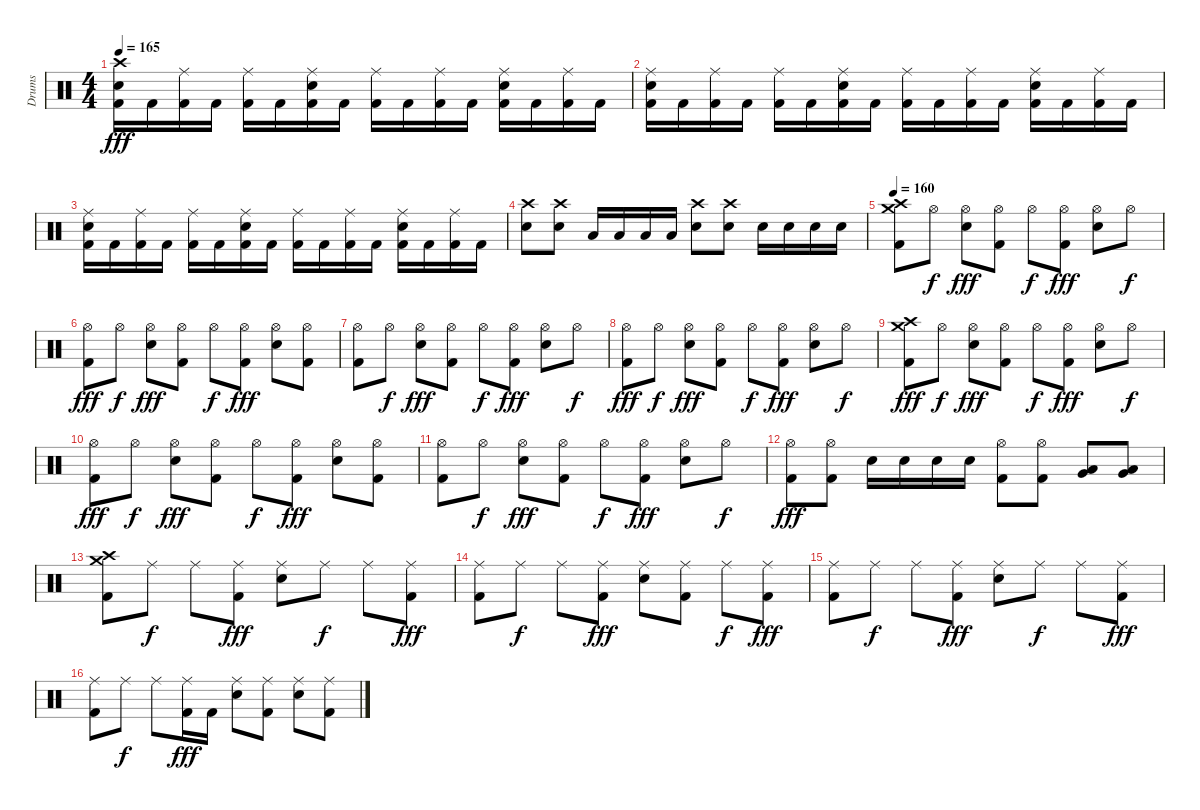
\track ("Drums" "Drums") {instrument percussion}
\staff {score}
\articulation defaults
\ts (4 4)
\tempo 165
\clef neutral
\ks c
("Kick (hit) 2" "Electric Snare (hit)" "Crash high (hit)").16{dy fff} "Kick (hit) 2".16 ("Kick (hit) 2" "Ride (middle)").16 "Kick (hit) 2".16 ("Kick (hit) 2" "Ride (middle)").16 "Kick (hit) 2".16 ("Kick (hit) 2" "Electric Snare (hit)" "Ride (middle)").16 "Kick (hit) 2".16 ("Kick (hit) 2" "Ride (middle)").16 "Kick (hit) 2".16 ("Kick (hit) 2" "Ride (middle)").16 "Kick (hit) 2".16 ("Kick (hit) 2" "Electric Snare (hit)" "Ride (middle)").16 "Kick (hit) 2".16 ("Kick (hit) 2" "Ride (middle)").16 "Kick (hit) 2".16 |
("Kick (hit) 2" "Electric Snare (hit)" "Ride (middle)").16 "Kick (hit) 2".16 ("Kick (hit) 2" "Ride (middle)").16 "Kick (hit) 2".16 ("Kick (hit) 2" "Ride (middle)").16 "Kick (hit) 2".16 ("Kick (hit) 2" "Electric Snare (hit)" "Ride (middle)").16 "Kick (hit) 2".16 ("Kick (hit) 2" "Ride (middle)").16 "Kick (hit) 2".16 ("Kick (hit) 2" "Ride (middle)").16 "Kick (hit) 2".16 ("Kick (hit) 2" "Electric Snare (hit)" "Ride (middle)").16 "Kick (hit) 2".16 ("Kick (hit) 2" "Ride (middle)").16 "Kick (hit) 2".16 |
("Kick (hit) 2" "Electric Snare (hit)" "Ride (middle)").16 "Kick (hit) 2".16 ("Kick (hit) 2" "Ride (middle)").16 "Kick (hit) 2".16 ("Kick (hit) 2" "Ride (middle)").16 "Kick (hit) 2".16 ("Kick (hit) 2" "Electric Snare (hit)" "Ride (middle)").16 "Kick (hit) 2".16 ("Kick (hit) 2" "Ride (middle)").16 "Kick (hit) 2".16 ("Kick (hit) 2" "Ride (middle)").16 "Kick (hit) 2".16 ("Kick (hit) 2" "Electric Snare (hit)" "Ride (middle)").16 "Kick (hit) 2".16 ("Kick (hit) 2" "Ride (middle)").16 "Kick (hit) 2".16 |
("Electric Snare (hit)" "Crash high (hit)").8 ("Electric Snare (hit)" "Crash high (hit)").8 "Low Tom (hit)".16 "Low Tom (hit)".16 "Low Tom (hit)".16 "Low Tom (hit)".16 ("Electric Snare (hit)" "Crash high (hit)").8 ("Electric Snare (hit)" "Crash high (hit)").8 "Electric Snare (hit)".16 "Electric Snare (hit)".16 "Electric Snare (hit)".16 "Electric Snare (hit)".16 |
\tempo 160
("Kick (hit) 2" "Crash medium (hit)" "Crash high (hit)").8 "Hi-Hat (open)".8{dy f} ("Electric Snare (hit)" "Hi-Hat (open)").8{dy fff} ("Kick (hit) 2" "Hi-Hat (open)").8 "Hi-Hat (open)".8{dy f} ("Kick (hit) 2" "Hi-Hat (open)").8{dy fff} ("Electric Snare (hit)" "Hi-Hat (open)").8 "Hi-Hat (open)".8{dy f} |
("Kick (hit) 2" "Hi-Hat (open)").8{dy fff} "Hi-Hat (open)".8{dy f} ("Electric Snare (hit)" "Hi-Hat (open)").8{dy fff} ("Kick (hit) 2" "Hi-Hat (open)").8 "Hi-Hat (open)".8{dy f} ("Kick (hit) 2" "Hi-Hat (open)").8{dy fff} ("Electric Snare (hit)" "Hi-Hat (open)").8 ("Kick (hit) 2" "Hi-Hat (open)").8 |
("Kick (hit) 2" "Hi-Hat (open)").8 "Hi-Hat (open)".8{dy f} ("Electric Snare (hit)" "Hi-Hat (open)").8{dy fff} ("Kick (hit) 2" "Hi-Hat (open)").8 "Hi-Hat (open)".8{dy f} ("Kick (hit) 2" "Hi-Hat (open)").8{dy fff} ("Electric Snare (hit)" "Hi-Hat (open)").8 "Hi-Hat (open)".8{dy f} |
("Kick (hit) 2" "Hi-Hat (open)").8{dy fff} "Hi-Hat (open)".8{dy f} ("Electric Snare (hit)" "Hi-Hat (open)").8{dy fff} ("Kick (hit) 2" "Hi-Hat (open)").8 "Hi-Hat (open)".8{dy f} ("Kick (hit) 2" "Hi-Hat (open)").8{dy fff} ("Electric Snare (hit)" "Hi-Hat (open)").8 "Hi-Hat (open)".8{dy f} |
("Kick (hit) 2" "Crash medium (hit)" "Crash high (hit)").8{dy fff} "Hi-Hat (open)".8{dy f} ("Electric Snare (hit)" "Hi-Hat (open)").8{dy fff} ("Kick (hit) 2" "Hi-Hat (open)").8 "Hi-Hat (open)".8{dy f} ("Kick (hit) 2" "Hi-Hat (open)").8{dy fff} ("Electric Snare (hit)" "Hi-Hat (open)").8 "Hi-Hat (open)".8{dy f} |
("Kick (hit) 2" "Hi-Hat (open)").8{dy fff} "Hi-Hat (open)".8{dy f} ("Electric Snare (hit)" "Hi-Hat (open)").8{dy fff} ("Kick (hit) 2" "Hi-Hat (open)").8 "Hi-Hat (open)".8{dy f} ("Kick (hit) 2" "Hi-Hat (open)").8{dy fff} ("Electric Snare (hit)" "Hi-Hat (open)").8 ("Kick (hit) 2" "Hi-Hat (open)").8 |
("Kick (hit) 2" "Hi-Hat (open)").8 "Hi-Hat (open)".8{dy f} ("Electric Snare (hit)" "Hi-Hat (open)").8{dy fff} ("Kick (hit) 2" "Hi-Hat (open)").8 "Hi-Hat (open)".8{dy f} ("Kick (hit) 2" "Hi-Hat (open)").8{dy fff} ("Electric Snare (hit)" "Hi-Hat (open)").8 "Hi-Hat (open)".8{dy f} |
("Kick (hit) 2" "Hi-Hat (open)").8{dy fff} ("Kick (hit) 2" "Hi-Hat (open)").8 "Electric Snare (hit)".16 "Electric Snare (hit)".16 "Electric Snare (hit)".16 "Electric Snare (hit)".16 ("Kick (hit) 2" "Hi-Hat (open)").8 ("Kick (hit) 2" "Hi-Hat (open)").8 ("Low Tom (hit)" "Very Low Tom (hit)").8 ("Low Tom (hit)" "Very Low Tom (hit)").8 |
("Kick (hit) 2" "Crash medium (hit)" "Crash high (hit)").8 "Ride (middle)".8{dy f} "Ride (middle)".8 ("Kick (hit) 2" "Ride (middle)").8{dy fff} ("Electric Snare (hit)" "Ride (middle)").8 "Ride (middle)".8{dy f} "Ride (middle)".8 ("Kick (hit) 2" "Ride (middle)").8{dy fff} |
("Kick (hit) 2" "Ride (middle)").8 "Ride (middle)".8{dy f} "Ride (middle)".8 ("Kick (hit) 2" "Ride (middle)").8{dy fff} ("Electric Snare (hit)" "Ride (middle)").8 ("Kick (hit) 2" "Ride (middle)").8 "Ride (middle)".8{dy f} ("Kick (hit) 2" "Ride (middle)").8{dy fff} |
("Kick (hit) 2" "Ride (middle)").8 "Ride (middle)".8{dy f} "Ride (middle)".8 ("Kick (hit) 2" "Ride (middle)").8{dy fff} ("Electric Snare (hit)" "Ride (middle)").8 "Ride (middle)".8{dy f} "Ride (middle)".8 ("Kick (hit) 2" "Ride (middle)").8{dy fff} |
("Kick (hit) 2" "Ride (middle)").8 "Ride (middle)".8{dy f} "Ride (middle)".8 ("Kick (hit) 2" "Ride (middle)").16{dy fff} "Kick (hit) 2".16 ("Electric Snare (hit)" "Ride (middle)").8 ("Kick (hit) 2" "Ride (middle)").8 ("Electric Snare (hit)" "Ride (middle)").8 ("Kick (hit) 2" "Ride (middle)").8
